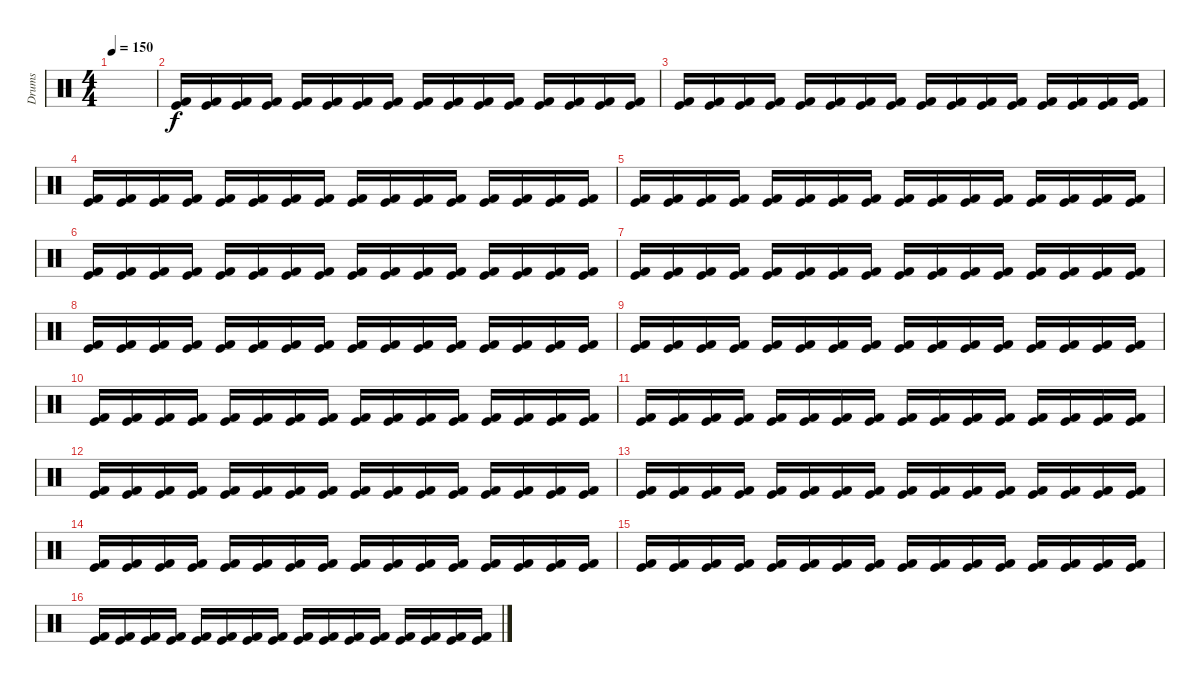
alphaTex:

\track ("Drums" "Drums") {instrument percussion}
\staff {score}
\articulation defaults
\ts (4 4)
\tempo 150
\clef neutral
\ks c
|
("Kick (hit) 2" "Kick (hit)").16 ("Kick (hit) 2" "Kick (hit)").16 ("Kick (hit) 2" "Kick (hit)").16 ("Kick (hit) 2" "Kick (hit)").16 ("Kick (hit) 2" "Kick (hit)").16 ("Kick (hit) 2" "Kick (hit)").16 ("Kick (hit) 2" "Kick (hit)").16 ("Kick (hit) 2" "Kick (hit)").16 ("Kick (hit) 2" "Kick (hit)").16 ("Kick (hit) 2" "Kick (hit)").16 ("Kick (hit) 2" "Kick (hit)").16 ("Kick (hit) 2" "Kick (hit)").16 ("Kick (hit) 2" "Kick (hit)").16 ("Kick (hit) 2" "Kick (hit)").16 ("Kick (hit) 2" "Kick (hit)").16 ("Kick (hit) 2" "Kick (hit)").16 |
("Kick (hit) 2" "Kick (hit)").16 ("Kick (hit) 2" "Kick (hit)").16 ("Kick (hit) 2" "Kick (hit)").16 ("Kick (hit) 2" "Kick (hit)").16 ("Kick (hit) 2" "Kick (hit)").16 ("Kick (hit) 2" "Kick (hit)").16 ("Kick (hit) 2" "Kick (hit)").16 ("Kick (hit) 2" "Kick (hit)").16 ("Kick (hit) 2" "Kick (hit)").16 ("Kick (hit) 2" "Kick (hit)").16 ("Kick (hit) 2" "Kick (hit)").16 ("Kick (hit) 2" "Kick (hit)").16 ("Kick (hit) 2" "Kick (hit)").16 ("Kick (hit) 2" "Kick (hit)").16 ("Kick (hit) 2" "Kick (hit)").16 ("Kick (hit) 2" "Kick (hit)").16 |
("Kick (hit) 2" "Kick (hit)").16 ("Kick (hit) 2" "Kick (hit)").16 ("Kick (hit) 2" "Kick (hit)").16 ("Kick (hit) 2" "Kick (hit)").16 ("Kick (hit) 2" "Kick (hit)").16 ("Kick (hit) 2" "Kick (hit)").16 ("Kick (hit) 2" "Kick (hit)").16 ("Kick (hit) 2" "Kick (hit)").16 ("Kick (hit) 2" "Kick (hit)").16 ("Kick (hit) 2" "Kick (hit)").16 ("Kick (hit) 2" "Kick (hit)").16 ("Kick (hit) 2" "Kick (hit)").16 ("Kick (hit) 2" "Kick (hit)").16 ("Kick (hit) 2" "Kick (hit)").16 ("Kick (hit) 2" "Kick (hit)").16 ("Kick (hit) 2" "Kick (hit)").16 |
("Kick (hit) 2" "Kick (hit)").16 ("Kick (hit) 2" "Kick (hit)").16 ("Kick (hit) 2" "Kick (hit)").16 ("Kick (hit) 2" "Kick (hit)").16 ("Kick (hit) 2" "Kick (hit)").16 ("Kick (hit) 2" "Kick (hit)").16 ("Kick (hit) 2" "Kick (hit)").16 ("Kick (hit) 2" "Kick (hit)").16 ("Kick (hit) 2" "Kick (hit)").16 ("Kick (hit) 2" "Kick (hit)").16 ("Kick (hit) 2" "Kick (hit)").16 ("Kick (hit) 2" "Kick (hit)").16 ("Kick (hit) 2" "Kick (hit)").16 ("Kick (hit) 2" "Kick (hit)").16 ("Kick (hit) 2" "Kick (hit)").16 ("Kick (hit) 2" "Kick (hit)").16 |
("Kick (hit) 2" "Kick (hit)").16 ("Kick (hit) 2" "Kick (hit)").16 ("Kick (hit) 2" "Kick (hit)").16 ("Kick (hit) 2" "Kick (hit)").16 ("Kick (hit) 2" "Kick (hit)").16 ("Kick (hit) 2" "Kick (hit)").16 ("Kick (hit) 2" "Kick (hit)").16 ("Kick (hit) 2" "Kick (hit)").16 ("Kick (hit) 2" "Kick (hit)").16 ("Kick (hit) 2" "Kick (hit)").16 ("Kick (hit) 2" "Kick (hit)").16 ("Kick (hit) 2" "Kick (hit)").16 ("Kick (hit) 2" "Kick (hit)").16 ("Kick (hit) 2" "Kick (hit)").16 ("Kick (hit) 2" "Kick (hit)").16 ("Kick (hit) 2" "Kick (hit)").16 |
("Kick (hit) 2" "Kick (hit)").16 ("Kick (hit) 2" "Kick (hit)").16 ("Kick (hit) 2" "Kick (hit)").16 ("Kick (hit) 2" "Kick (hit)").16 ("Kick (hit) 2" "Kick (hit)").16 ("Kick (hit) 2" "Kick (hit)").16 ("Kick (hit) 2" "Kick (hit)").16 ("Kick (hit) 2" "Kick (hit)").16 ("Kick (hit) 2" "Kick (hit)").16 ("Kick (hit) 2" "Kick (hit)").16 ("Kick (hit) 2" "Kick (hit)").16 ("Kick (hit) 2" "Kick (hit)").16 ("Kick (hit) 2" "Kick (hit)").16 ("Kick (hit) 2" "Kick (hit)").16 ("Kick (hit) 2" "Kick (hit)").16 ("Kick (hit) 2" "Kick (hit)").16 |
("Kick (hit) 2" "Kick (hit)").16 ("Kick (hit) 2" "Kick (hit)").16 ("Kick (hit) 2" "Kick (hit)").16 ("Kick (hit) 2" "Kick (hit)").16 ("Kick (hit) 2" "Kick (hit)").16 ("Kick (hit) 2" "Kick (hit)").16 ("Kick (hit) 2" "Kick (hit)").16 ("Kick (hit) 2" "Kick (hit)").16 ("Kick (hit) 2" "Kick (hit)").16 ("Kick (hit) 2" "Kick (hit)").16 ("Kick (hit) 2" "Kick (hit)").16 ("Kick (hit) 2" "Kick (hit)").16 ("Kick (hit) 2" "Kick (hit)").16 ("Kick (hit) 2" "Kick (hit)").16 ("Kick (hit) 2" "Kick (hit)").16 ("Kick (hit) 2" "Kick (hit)").16 |
("Kick (hit) 2" "Kick (hit)").16 ("Kick (hit) 2" "Kick (hit)").16 ("Kick (hit) 2" "Kick (hit)").16 ("Kick (hit) 2" "Kick (hit)").16 ("Kick (hit) 2" "Kick (hit)").16 ("Kick (hit) 2" "Kick (hit)").16 ("Kick (hit) 2" "Kick (hit)").16 ("Kick (hit) 2" "Kick (hit)").16 ("Kick (hit) 2" "Kick (hit)").16 ("Kick (hit) 2" "Kick (hit)").16 ("Kick (hit) 2" "Kick (hit)").16 ("Kick (hit) 2" "Kick (hit)").16 ("Kick (hit) 2" "Kick (hit)").16 ("Kick (hit) 2" "Kick (hit)").16 ("Kick (hit) 2" "Kick (hit)").16 ("Kick (hit) 2" "Kick (hit)").16 |
("Kick (hit) 2" "Kick (hit)").16 ("Kick (hit) 2" "Kick (hit)").16 ("Kick (hit) 2" "Kick (hit)").16 ("Kick (hit) 2" "Kick (hit)").16 ("Kick (hit) 2" "Kick (hit)").16 ("Kick (hit) 2" "Kick (hit)").16 ("Kick (hit) 2" "Kick (hit)").16 ("Kick (hit) 2" "Kick (hit)").16 ("Kick (hit) 2" "Kick (hit)").16 ("Kick (hit) 2" "Kick (hit)").16 ("Kick (hit) 2" "Kick (hit)").16 ("Kick (hit) 2" "Kick (hit)").16 ("Kick (hit) 2" "Kick (hit)").16 ("Kick (hit) 2" "Kick (hit)").16 ("Kick (hit) 2" "Kick (hit)").16 ("Kick (hit) 2" "Kick (hit)").16 |
("Kick (hit) 2" "Kick (hit)").16 ("Kick (hit) 2" "Kick (hit)").16 ("Kick (hit) 2" "Kick (hit)").16 ("Kick (hit) 2" "Kick (hit)").16 ("Kick (hit) 2" "Kick (hit)").16 ("Kick (hit) 2" "Kick (hit)").16 ("Kick (hit) 2" "Kick (hit)").16 ("Kick (hit) 2" "Kick (hit)").16 ("Kick (hit) 2" "Kick (hit)").16 ("Kick (hit) 2" "Kick (hit)").16 ("Kick (hit) 2" "Kick (hit)").16 ("Kick (hit) 2" "Kick (hit)").16 ("Kick (hit) 2" "Kick (hit)").16 ("Kick (hit) 2" "Kick (hit)").16 ("Kick (hit) 2" "Kick (hit)").16 ("Kick (hit) 2" "Kick (hit)").16 |
("Kick (hit) 2" "Kick (hit)").16 ("Kick (hit) 2" "Kick (hit)").16 ("Kick (hit) 2" "Kick (hit)").16 ("Kick (hit) 2" "Kick (hit)").16 ("Kick (hit) 2" "Kick (hit)").16 ("Kick (hit) 2" "Kick (hit)").16 ("Kick (hit) 2" "Kick (hit)").16 ("Kick (hit) 2" "Kick (hit)").16 ("Kick (hit) 2" "Kick (hit)").16 ("Kick (hit) 2" "Kick (hit)").16 ("Kick (hit) 2" "Kick (hit)").16 ("Kick (hit) 2" "Kick (hit)").16 ("Kick (hit) 2" "Kick (hit)").16 ("Kick (hit) 2" "Kick (hit)").16 ("Kick (hit) 2" "Kick (hit)").16 ("Kick (hit) 2" "Kick (hit)").16 |
("Kick (hit) 2" "Kick (hit)").16 ("Kick (hit) 2" "Kick (hit)").16 ("Kick (hit) 2" "Kick (hit)").16 ("Kick (hit) 2" "Kick (hit)").16 ("Kick (hit) 2" "Kick (hit)").16 ("Kick (hit) 2" "Kick (hit)").16 ("Kick (hit) 2" "Kick (hit)").16 ("Kick (hit) 2" "Kick (hit)").16 ("Kick (hit) 2" "Kick (hit)").16 ("Kick (hit) 2" "Kick (hit)").16 ("Kick (hit) 2" "Kick (hit)").16 ("Kick (hit) 2" "Kick (hit)").16 ("Kick (hit) 2" "Kick (hit)").16 ("Kick (hit) 2" "Kick (hit)").16 ("Kick (hit) 2" "Kick (hit)").16 ("Kick (hit) 2" "Kick (hit)").16 |
("Kick (hit) 2" "Kick (hit)").16 ("Kick (hit) 2" "Kick (hit)").16 ("Kick (hit) 2" "Kick (hit)").16 ("Kick (hit) 2" "Kick (hit)").16 ("Kick (hit) 2" "Kick (hit)").16 ("Kick (hit) 2" "Kick (hit)").16 ("Kick (hit) 2" "Kick (hit)").16 ("Kick (hit) 2" "Kick (hit)").16 ("Kick (hit) 2" "Kick (hit)").16 ("Kick (hit) 2" "Kick (hit)").16 ("Kick (hit) 2" "Kick (hit)").16 ("Kick (hit) 2" "Kick (hit)").16 ("Kick (hit) 2" "Kick (hit)").16 ("Kick (hit) 2" "Kick (hit)").16 ("Kick (hit) 2" "Kick (hit)").16 ("Kick (hit) 2" "Kick (hit)").16 |
("Kick (hit) 2" "Kick (hit)").16 ("Kick (hit) 2" "Kick (hit)").16 ("Kick (hit) 2" "Kick (hit)").16 ("Kick (hit) 2" "Kick (hit)").16 ("Kick (hit) 2" "Kick (hit)").16 ("Kick (hit) 2" "Kick (hit)").16 ("Kick (hit) 2" "Kick (hit)").16 ("Kick (hit) 2" "Kick (hit)").16 ("Kick (hit) 2" "Kick (hit)").16 ("Kick (hit) 2" "Kick (hit)").16 ("Kick (hit) 2" "Kick (hit)").16 ("Kick (hit) 2" "Kick (hit)").16 ("Kick (hit) 2" "Kick (hit)").16 ("Kick (hit) 2" "Kick (hit)").16 ("Kick (hit) 2" "Kick (hit)").16 ("Kick (hit) 2" "Kick (hit)").16 |
("Kick (hit) 2" "Kick (hit)").16 ("Kick (hit) 2" "Kick (hit)").16 ("Kick (hit) 2" "Kick (hit)").16 ("Kick (hit) 2" "Kick (hit)").16 ("Kick (hit) 2" "Kick (hit)").16 ("Kick (hit) 2" "Kick (hit)").16 ("Kick (hit) 2" "Kick (hit)").16 ("Kick (hit) 2" "Kick (hit)").16 ("Kick (hit) 2" "Kick (hit)").16 ("Kick (hit) 2" "Kick (hit)").16 ("Kick (hit) 2" "Kick (hit)").16 ("Kick (hit) 2" "Kick (hit)").16 ("Kick (hit) 2" "Kick (hit)").16 ("Kick (hit) 2" "Kick (hit)").16 ("Kick (hit) 2" "Kick (hit)").16 ("Kick (hit) 2" "Kick (hit)").16
